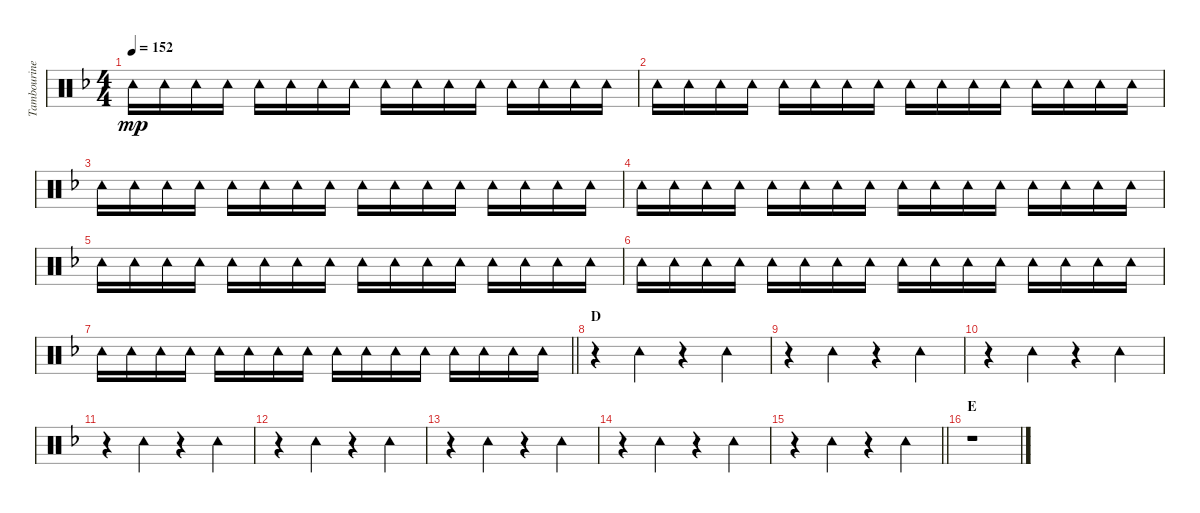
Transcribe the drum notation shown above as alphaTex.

\track ("Tambourine" "Tambourine") {instrument percussion}
\staff {score}
\articulation defaults
\ts (4 4)
\tempo 152
\clef neutral
\ks f "Tambourine (hit)".16{dy mp} "Tambourine (hit)".16 "Tambourine (hit)".16 "Tambourine (hit)".16 "Tambourine (hit)".16 "Tambourine (hit)".16 "Tambourine (hit)".16 "Tambourine (hit)".16 "Tambourine (hit)".16 "Tambourine (hit)".16 "Tambourine (hit)".16 "Tambourine (hit)".16 "Tambourine (hit)".16 "Tambourine (hit)".16 "Tambourine (hit)".16 "Tambourine (hit)".16
|
"Tambourine (hit)".16 "Tambourine (hit)".16 "Tambourine (hit)".16 "Tambourine (hit)".16 "Tambourine (hit)".16 "Tambourine (hit)".16 "Tambourine (hit)".16 "Tambourine (hit)".16 "Tambourine (hit)".16 "Tambourine (hit)".16 "Tambourine (hit)".16 "Tambourine (hit)".16 "Tambourine (hit)".16 "Tambourine (hit)".16 "Tambourine (hit)".16 "Tambourine (hit)".16 |
"Tambourine (hit)".16 "Tambourine (hit)".16 "Tambourine (hit)".16 "Tambourine (hit)".16 "Tambourine (hit)".16 "Tambourine (hit)".16 "Tambourine (hit)".16 "Tambourine (hit)".16 "Tambourine (hit)".16 "Tambourine (hit)".16 "Tambourine (hit)".16 "Tambourine (hit)".16 "Tambourine (hit)".16 "Tambourine (hit)".16 "Tambourine (hit)".16 "Tambourine (hit)".16 |
"Tambourine (hit)".16 "Tambourine (hit)".16 "Tambourine (hit)".16 "Tambourine (hit)".16 "Tambourine (hit)".16 "Tambourine (hit)".16 "Tambourine (hit)".16 "Tambourine (hit)".16 "Tambourine (hit)".16 "Tambourine (hit)".16 "Tambourine (hit)".16 "Tambourine (hit)".16 "Tambourine (hit)".16 "Tambourine (hit)".16 "Tambourine (hit)".16 "Tambourine (hit)".16 |
"Tambourine (hit)".16 "Tambourine (hit)".16 "Tambourine (hit)".16 "Tambourine (hit)".16 "Tambourine (hit)".16 "Tambourine (hit)".16 "Tambourine (hit)".16 "Tambourine (hit)".16 "Tambourine (hit)".16 "Tambourine (hit)".16 "Tambourine (hit)".16 "Tambourine (hit)".16 "Tambourine (hit)".16 "Tambourine (hit)".16 "Tambourine (hit)".16 "Tambourine (hit)".16 |
"Tambourine (hit)".16 "Tambourine (hit)".16 "Tambourine (hit)".16 "Tambourine (hit)".16 "Tambourine (hit)".16 "Tambourine (hit)".16 "Tambourine (hit)".16 "Tambourine (hit)".16 "Tambourine (hit)".16 "Tambourine (hit)".16 "Tambourine (hit)".16 "Tambourine (hit)".16 "Tambourine (hit)".16 "Tambourine (hit)".16 "Tambourine (hit)".16 "Tambourine (hit)".16 |
\barLineRight lightlight "Tambourine (hit)".16 "Tambourine (hit)".16 "Tambourine (hit)".16 "Tambourine (hit)".16 "Tambourine (hit)".16 "Tambourine (hit)".16 "Tambourine (hit)".16 "Tambourine (hit)".16 "Tambourine (hit)".16 "Tambourine (hit)".16 "Tambourine (hit)".16 "Tambourine (hit)".16 "Tambourine (hit)".16 "Tambourine (hit)".16 "Tambourine (hit)".16 "Tambourine (hit)".16
|
\section ("" "D")
r.4 "Tambourine (hit)".4 r.4 "Tambourine (hit)".4 |
r.4 "Tambourine (hit)".4 r.4 "Tambourine (hit)".4 |
r.4 "Tambourine (hit)".4 r.4 "Tambourine (hit)".4 |
r.4 "Tambourine (hit)".4 r.4 "Tambourine (hit)".4 |
r.4 "Tambourine (hit)".4 r.4 "Tambourine (hit)".4 |
r.4 "Tambourine (hit)".4 r.4 "Tambourine (hit)".4 |
r.4 "Tambourine (hit)".4 r.4 "Tambourine (hit)".4 |
\barLineRight lightlight
r.4 "Tambourine (hit)".4 r.4 "Tambourine (hit)".4 |
\section ("" "E")
r.1
